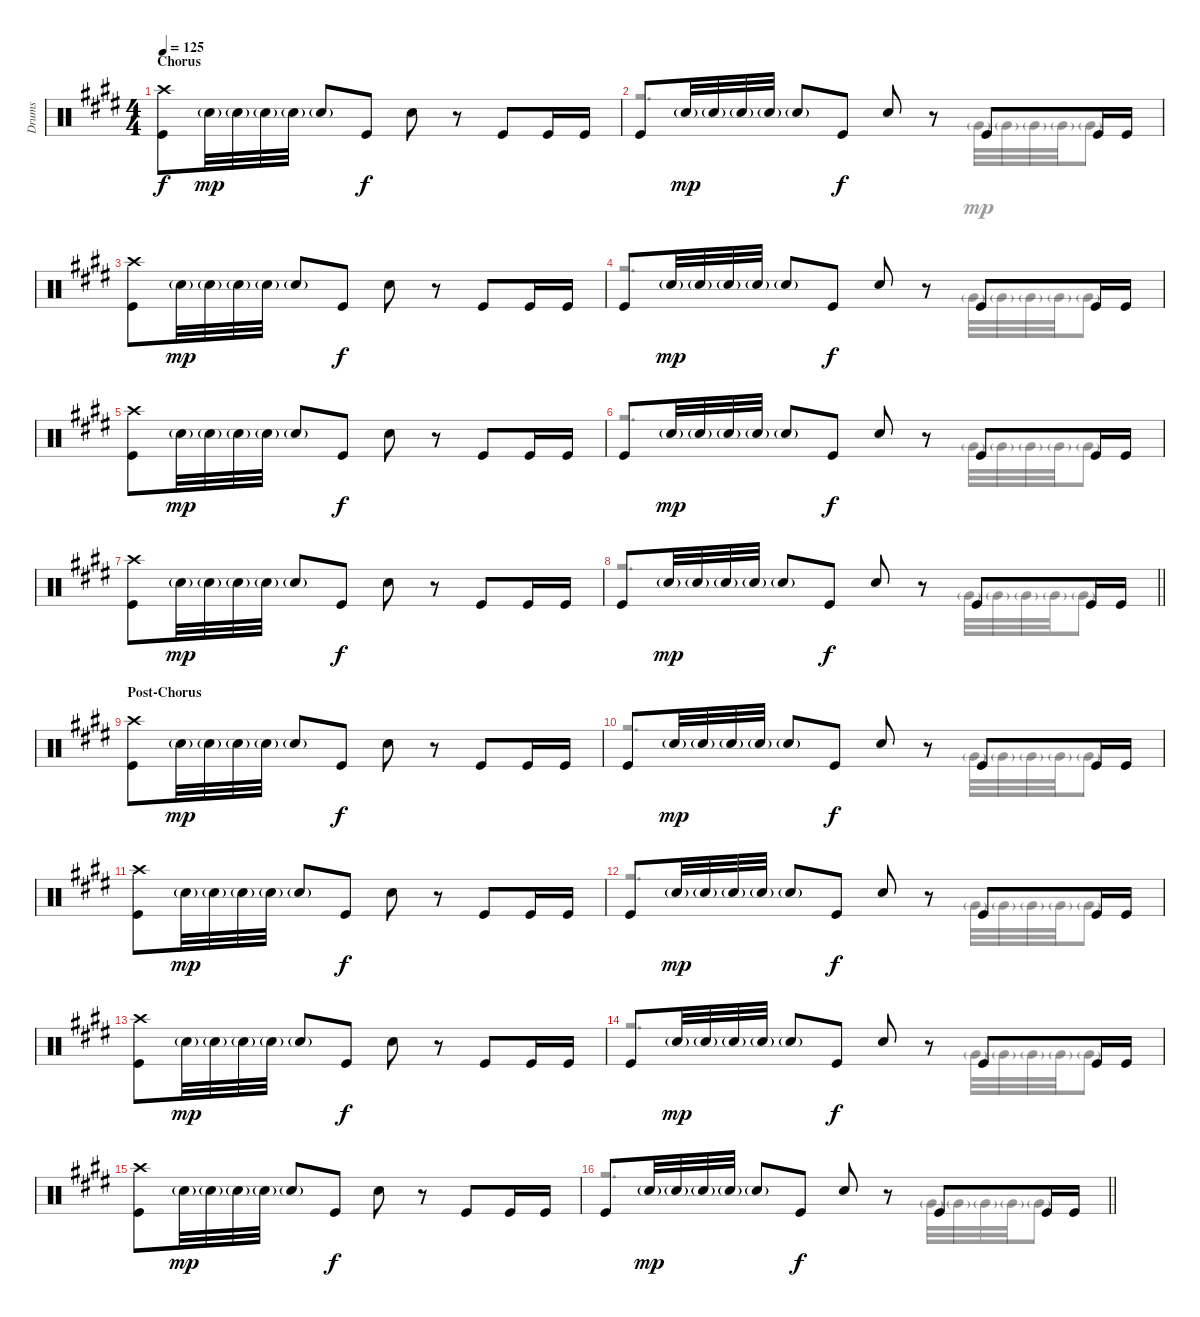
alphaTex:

\track ("Drums" "Drums") {instrument percussion}
\staff {score}
\articulation defaults
\voice
\ts (4 4)
\section ("" "Chorus")
\tempo 125
\clef neutral
\ks c#minor
("Crash high (hit)" "Kick (hit)").8{dy f} "Electric Snare (hit)"{g}.32{dy mp} "Electric Snare (hit)"{g}.32 "Electric Snare (hit)"{g}.32 "Electric Snare (hit)"{g}.32 "Electric Snare (hit)"{g}.8 "Kick (hit)".8{dy f} "Electric Snare (hit)".8 r.8 "Kick (hit)".8 "Kick (hit)".16 "Kick (hit)".16 |
"Kick (hit)".8 "Electric Snare (hit)"{g}.32{dy mp} "Electric Snare (hit)"{g}.32 "Electric Snare (hit)"{g}.32 "Electric Snare (hit)"{g}.32 "Electric Snare (hit)"{g}.8 "Kick (hit)".8{dy f} "Electric Snare (hit)".8 r.8 "Kick (hit)".8 "Kick (hit)".16 "Kick (hit)".16 |
("Crash high (hit)" "Kick (hit)").8 "Electric Snare (hit)"{g}.32{dy mp} "Electric Snare (hit)"{g}.32 "Electric Snare (hit)"{g}.32 "Electric Snare (hit)"{g}.32 "Electric Snare (hit)"{g}.8 "Kick (hit)".8{dy f} "Electric Snare (hit)".8 r.8 "Kick (hit)".8 "Kick (hit)".16 "Kick (hit)".16 |
"Kick (hit)".8 "Electric Snare (hit)"{g}.32{dy mp} "Electric Snare (hit)"{g}.32 "Electric Snare (hit)"{g}.32 "Electric Snare (hit)"{g}.32 "Electric Snare (hit)"{g}.8 "Kick (hit)".8{dy f} "Electric Snare (hit)".8 r.8 "Kick (hit)".8 "Kick (hit)".16 "Kick (hit)".16 |
("Crash high (hit)" "Kick (hit)").8 "Electric Snare (hit)"{g}.32{dy mp} "Electric Snare (hit)"{g}.32 "Electric Snare (hit)"{g}.32 "Electric Snare (hit)"{g}.32 "Electric Snare (hit)"{g}.8 "Kick (hit)".8{dy f} "Electric Snare (hit)".8 r.8 "Kick (hit)".8 "Kick (hit)".16 "Kick (hit)".16 |
"Kick (hit)".8 "Electric Snare (hit)"{g}.32{dy mp} "Electric Snare (hit)"{g}.32 "Electric Snare (hit)"{g}.32 "Electric Snare (hit)"{g}.32 "Electric Snare (hit)"{g}.8 "Kick (hit)".8{dy f} "Electric Snare (hit)".8 r.8 "Kick (hit)".8 "Kick (hit)".16 "Kick (hit)".16 |
("Crash high (hit)" "Kick (hit)").8 "Electric Snare (hit)"{g}.32{dy mp} "Electric Snare (hit)"{g}.32 "Electric Snare (hit)"{g}.32 "Electric Snare (hit)"{g}.32 "Electric Snare (hit)"{g}.8 "Kick (hit)".8{dy f} "Electric Snare (hit)".8 r.8 "Kick (hit)".8 "Kick (hit)".16 "Kick (hit)".16 |
\barLineRight lightlight "Kick (hit)".8 "Electric Snare (hit)"{g}.32{dy mp} "Electric Snare (hit)"{g}.32 "Electric Snare (hit)"{g}.32 "Electric Snare (hit)"{g}.32 "Electric Snare (hit)"{g}.8 "Kick (hit)".8{dy f} "Electric Snare (hit)".8
r.8 "Kick (hit)".8 "Kick (hit)".16 "Kick (hit)".16 |
\section ("" "Post-Chorus")
("Crash high (hit)" "Kick (hit)").8 "Electric Snare (hit)"{g}.32{dy mp} "Electric Snare (hit)"{g}.32 "Electric Snare (hit)"{g}.32 "Electric Snare (hit)"{g}.32 "Electric Snare (hit)"{g}.8 "Kick (hit)".8{dy f} "Electric Snare (hit)".8 r.8 "Kick (hit)".8 "Kick (hit)".16 "Kick (hit)".16 |
"Kick (hit)".8 "Electric Snare (hit)"{g}.32{dy mp} "Electric Snare (hit)"{g}.32 "Electric Snare (hit)"{g}.32 "Electric Snare (hit)"{g}.32 "Electric Snare (hit)"{g}.8 "Kick (hit)".8{dy f} "Electric Snare (hit)".8 r.8 "Kick (hit)".8 "Kick (hit)".16 "Kick (hit)".16 |
("Crash high (hit)" "Kick (hit)").8 "Electric Snare (hit)"{g}.32{dy mp} "Electric Snare (hit)"{g}.32 "Electric Snare (hit)"{g}.32 "Electric Snare (hit)"{g}.32 "Electric Snare (hit)"{g}.8 "Kick (hit)".8{dy f} "Electric Snare (hit)".8 r.8 "Kick (hit)".8 "Kick (hit)".16 "Kick (hit)".16 |
"Kick (hit)".8 "Electric Snare (hit)"{g}.32{dy mp} "Electric Snare (hit)"{g}.32 "Electric Snare (hit)"{g}.32 "Electric Snare (hit)"{g}.32 "Electric Snare (hit)"{g}.8 "Kick (hit)".8{dy f} "Electric Snare (hit)".8 r.8 "Kick (hit)".8 "Kick (hit)".16 "Kick (hit)".16 |
("Crash high (hit)" "Kick (hit)").8 "Electric Snare (hit)"{g}.32{dy mp} "Electric Snare (hit)"{g}.32 "Electric Snare (hit)"{g}.32 "Electric Snare (hit)"{g}.32 "Electric Snare (hit)"{g}.8 "Kick (hit)".8{dy f} "Electric Snare (hit)".8 r.8 "Kick (hit)".8 "Kick (hit)".16 "Kick (hit)".16 |
"Kick (hit)".8 "Electric Snare (hit)"{g}.32{dy mp} "Electric Snare (hit)"{g}.32 "Electric Snare (hit)"{g}.32 "Electric Snare (hit)"{g}.32 "Electric Snare (hit)"{g}.8 "Kick (hit)".8{dy f} "Electric Snare (hit)".8 r.8 "Kick (hit)".8 "Kick (hit)".16 "Kick (hit)".16 |
("Crash high (hit)" "Kick (hit)").8 "Electric Snare (hit)"{g}.32{dy mp} "Electric Snare (hit)"{g}.32 "Electric Snare (hit)"{g}.32 "Electric Snare (hit)"{g}.32 "Electric Snare (hit)"{g}.8 "Kick (hit)".8{dy f} "Electric Snare (hit)".8 r.8 "Kick (hit)".8 "Kick (hit)".16 "Kick (hit)".16 |
\barLineRight lightlight "Kick (hit)".8 "Electric Snare (hit)"{g}.32{dy mp} "Electric Snare (hit)"{g}.32 "Electric Snare (hit)"{g}.32 "Electric Snare (hit)"{g}.32 "Electric Snare (hit)"{g}.8 "Kick (hit)".8{dy f} "Electric Snare (hit)".8
r.8 "Kick (hit)".8 "Kick (hit)".16 "Kick (hit)".16
\voice
\clef neutral
\ottava regular
\simile none
\ks c#minor
|
r.2{d} "Very Low Tom (hit)"{g}.32{dy mp} "Very Low Tom (hit)"{g}.32 "Very Low Tom (hit)"{g}.32 "Very Low Tom (hit)"{g}.32 "Very Low Tom (hit)"{g}.8 |
|
r.2{d} "Very Low Tom (hit)"{g}.32 "Very Low Tom (hit)"{g}.32 "Very Low Tom (hit)"{g}.32 "Very Low Tom (hit)"{g}.32 "Very Low Tom (hit)"{g}.8 |
|
r.2{d} "Very Low Tom (hit)"{g}.32 "Very Low Tom (hit)"{g}.32 "Very Low Tom (hit)"{g}.32 "Very Low Tom (hit)"{g}.32 "Very Low Tom (hit)"{g}.8 |
|
\barLineRight lightlight
r.2{d} "Very Low Tom (hit)"{g}.32 "Very Low Tom (hit)"{g}.32 "Very Low Tom (hit)"{g}.32 "Very Low Tom (hit)"{g}.32 "Very Low Tom (hit)"{g}.8 |
|
r.2{d} "Very Low Tom (hit)"{g}.32 "Very Low Tom (hit)"{g}.32 "Very Low Tom (hit)"{g}.32 "Very Low Tom (hit)"{g}.32 "Very Low Tom (hit)"{g}.8 |
|
r.2{d} "Very Low Tom (hit)"{g}.32 "Very Low Tom (hit)"{g}.32 "Very Low Tom (hit)"{g}.32 "Very Low Tom (hit)"{g}.32 "Very Low Tom (hit)"{g}.8 |
|
r.2{d} "Very Low Tom (hit)"{g}.32 "Very Low Tom (hit)"{g}.32 "Very Low Tom (hit)"{g}.32 "Very Low Tom (hit)"{g}.32 "Very Low Tom (hit)"{g}.8 |
|
\barLineRight lightlight
r.2{d} "Very Low Tom (hit)"{g}.32 "Very Low Tom (hit)"{g}.32 "Very Low Tom (hit)"{g}.32 "Very Low Tom (hit)"{g}.32 "Very Low Tom (hit)"{g}.8
